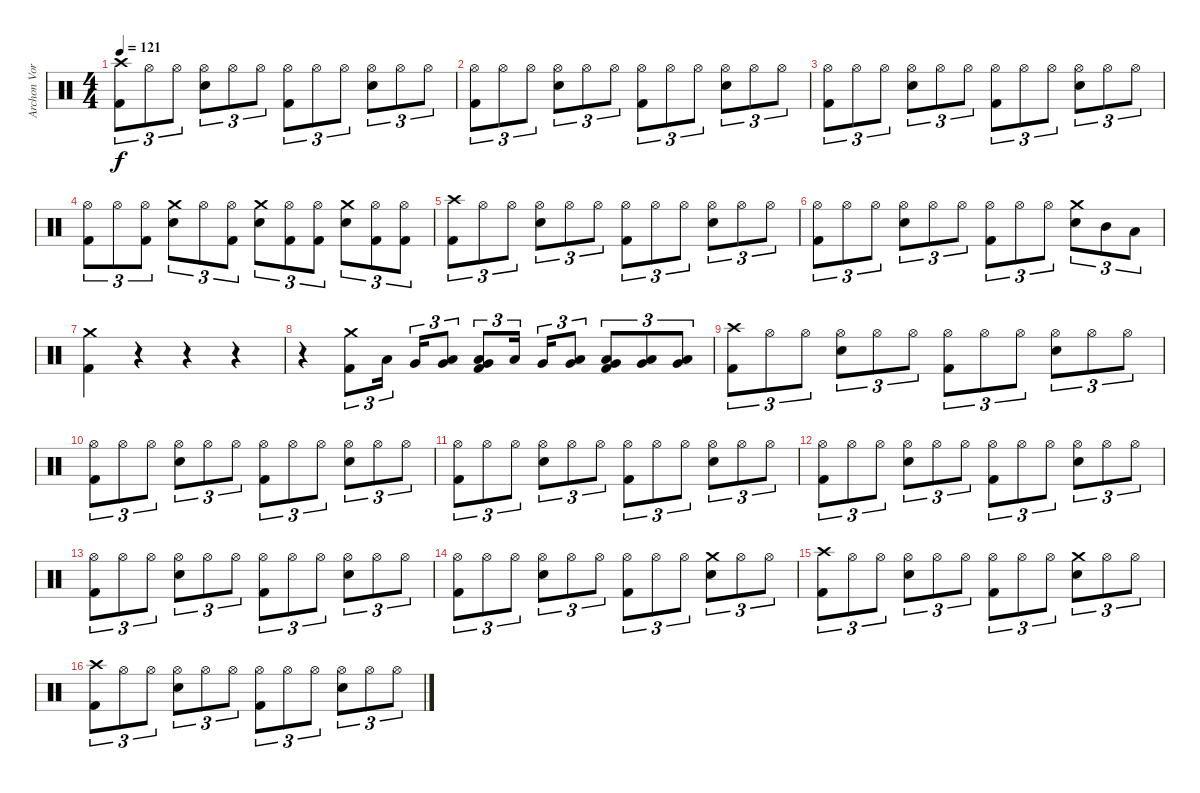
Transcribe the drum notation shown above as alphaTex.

\track ("Archon Vorskaath" "Archon Vor") {instrument percussion}
\staff {score}
\articulation defaults
\ts (4 4)
\tempo 121
\clef neutral
\ks c
("Crash high (hit)" "Kick (hit) 2").8{tu (3 2) dy f} "Hi-Hat (open)".8{tu (3 2)} "Hi-Hat (open)".8{tu (3 2)} ("Hi-Hat (open)" "Electric Snare (hit)").8{tu (3 2)} "Hi-Hat (open)".8{tu (3 2)} "Hi-Hat (open)".8{tu (3 2)} ("Hi-Hat (open)" "Kick (hit) 2").8{tu (3 2)} "Hi-Hat (open)".8{tu (3 2)} "Hi-Hat (open)".8{tu (3 2)} ("Hi-Hat (open)" "Electric Snare (hit)").8{tu (3 2)} "Hi-Hat (open)".8{tu (3 2)} "Hi-Hat (open)".8{tu (3 2)} |
("Hi-Hat (open)" "Kick (hit) 2").8{tu (3 2)} "Hi-Hat (open)".8{tu (3 2)} "Hi-Hat (open)".8{tu (3 2)} ("Hi-Hat (open)" "Electric Snare (hit)").8{tu (3 2)} "Hi-Hat (open)".8{tu (3 2)} "Hi-Hat (open)".8{tu (3 2)} ("Hi-Hat (open)" "Kick (hit) 2").8{tu (3 2)} "Hi-Hat (open)".8{tu (3 2)} "Hi-Hat (open)".8{tu (3 2)} ("Hi-Hat (open)" "Electric Snare (hit)").8{tu (3 2)} "Hi-Hat (open)".8{tu (3 2)} "Hi-Hat (open)".8{tu (3 2)} |
("Hi-Hat (open)" "Kick (hit) 2").8{tu (3 2)} "Hi-Hat (open)".8{tu (3 2)} "Hi-Hat (open)".8{tu (3 2)} ("Hi-Hat (open)" "Electric Snare (hit)").8{tu (3 2)} "Hi-Hat (open)".8{tu (3 2)} "Hi-Hat (open)".8{tu (3 2)} ("Hi-Hat (open)" "Kick (hit) 2").8{tu (3 2)} "Hi-Hat (open)".8{tu (3 2)} "Hi-Hat (open)".8{tu (3 2)} ("Hi-Hat (open)" "Electric Snare (hit)").8{tu (3 2)} "Hi-Hat (open)".8{tu (3 2)} "Hi-Hat (open)".8{tu (3 2)} |
("Hi-Hat (open)" "Kick (hit) 2").8{tu (3 2)} "Hi-Hat (open)".8{tu (3 2)} ("Hi-Hat (open)" "Kick (hit) 2").8{tu (3 2)} ("Crash medium (hit)" "Electric Snare (hit)").8{tu (3 2)} "Hi-Hat (open)".8{tu (3 2)} ("Hi-Hat (open)" "Kick (hit) 2").8{tu (3 2)} ("Crash medium (hit)" "Electric Snare (hit)").8{tu (3 2)} ("Hi-Hat (open)" "Kick (hit) 2").8{tu (3 2)} ("Hi-Hat (open)" "Kick (hit) 2").8{tu (3 2)} ("Crash medium (hit)" "Electric Snare (hit)").8{tu (3 2)} ("Hi-Hat (open)" "Kick (hit) 2").8{tu (3 2)} ("Hi-Hat (open)" "Kick (hit) 2").8{tu (3 2)} |
("Crash high (hit)" "Kick (hit) 2").8{tu (3 2)} "Hi-Hat (open)".8{tu (3 2)} "Hi-Hat (open)".8{tu (3 2)} ("Hi-Hat (open)" "Electric Snare (hit)").8{tu (3 2)} "Hi-Hat (open)".8{tu (3 2)} "Hi-Hat (open)".8{tu (3 2)} ("Hi-Hat (open)" "Kick (hit) 2").8{tu (3 2)} "Hi-Hat (open)".8{tu (3 2)} "Hi-Hat (open)".8{tu (3 2)} ("Hi-Hat (open)" "Electric Snare (hit)").8{tu (3 2)} "Hi-Hat (open)".8{tu (3 2)} "Hi-Hat (open)".8{tu (3 2)} |
("Hi-Hat (open)" "Kick (hit) 2").8{tu (3 2)} "Hi-Hat (open)".8{tu (3 2)} "Hi-Hat (open)".8{tu (3 2)} ("Hi-Hat (open)" "Electric Snare (hit)").8{tu (3 2)} "Hi-Hat (open)".8{tu (3 2)} "Hi-Hat (open)".8{tu (3 2)} ("Hi-Hat (open)" "Kick (hit) 2").8{tu (3 2)} "Hi-Hat (open)".8{tu (3 2)} "Hi-Hat (open)".8{tu (3 2)} ("Crash medium (hit)" "Electric Snare (hit)").8{tu (3 2)} "Mid Tom (hit)".8{tu (3 2)} "Low Tom (hit)".8{tu (3 2)} |
("Crash medium (hit)" "Kick (hit) 2").4 r.4 r.4 r.4 |
r.4 ("Crash medium (hit)" "Kick (hit) 2").8{tu (3 2)} "Low Tom (hit)".16{tu (3 2) beam splitsecondary} "Very Low Tom (hit)".16{tu (3 2)} ("Very Low Tom (hit)" "Low Tom (hit)").8{tu (3 2)} ("Very Low Tom (hit)" "Low Tom (hit)" "Kick (hit) 2").8{tu (3 2)} "Low Tom (hit)".16{tu (3 2) beam splitsecondary} "Very Low Tom (hit)".16{tu (3 2)} ("Very Low Tom (hit)" "Low Tom (hit)").8{tu (3 2)} ("Low Floor Tom (hit)" "Very Low Tom (hit)" "Kick (hit) 2").8{tu (3 2)} ("Low Floor Tom (hit)" "Very Low Tom (hit)").8{tu (3 2)} ("Low Floor Tom (hit)" "Very Low Tom (hit)").8{tu (3 2)} |
("Crash high (hit)" "Kick (hit) 2").8{tu (3 2)} "Hi-Hat (open)".8{tu (3 2)} "Hi-Hat (open)".8{tu (3 2)} ("Hi-Hat (open)" "Electric Snare (hit)").8{tu (3 2)} "Hi-Hat (open)".8{tu (3 2)} "Hi-Hat (open)".8{tu (3 2)} ("Hi-Hat (open)" "Kick (hit) 2").8{tu (3 2)} "Hi-Hat (open)".8{tu (3 2)} "Hi-Hat (open)".8{tu (3 2)} ("Hi-Hat (open)" "Electric Snare (hit)").8{tu (3 2)} "Hi-Hat (open)".8{tu (3 2)} "Hi-Hat (open)".8{tu (3 2)} |
("Hi-Hat (open)" "Kick (hit) 2").8{tu (3 2)} "Hi-Hat (open)".8{tu (3 2)} "Hi-Hat (open)".8{tu (3 2)} ("Hi-Hat (open)" "Electric Snare (hit)").8{tu (3 2)} "Hi-Hat (open)".8{tu (3 2)} "Hi-Hat (open)".8{tu (3 2)} ("Hi-Hat (open)" "Kick (hit) 2").8{tu (3 2)} "Hi-Hat (open)".8{tu (3 2)} "Hi-Hat (open)".8{tu (3 2)} ("Hi-Hat (open)" "Electric Snare (hit)").8{tu (3 2)} "Hi-Hat (open)".8{tu (3 2)} "Hi-Hat (open)".8{tu (3 2)} |
("Hi-Hat (open)" "Kick (hit) 2").8{tu (3 2)} "Hi-Hat (open)".8{tu (3 2)} "Hi-Hat (open)".8{tu (3 2)} ("Hi-Hat (open)" "Electric Snare (hit)").8{tu (3 2)} "Hi-Hat (open)".8{tu (3 2)} "Hi-Hat (open)".8{tu (3 2)} ("Hi-Hat (open)" "Kick (hit) 2").8{tu (3 2)} "Hi-Hat (open)".8{tu (3 2)} "Hi-Hat (open)".8{tu (3 2)} ("Hi-Hat (open)" "Electric Snare (hit)").8{tu (3 2)} "Hi-Hat (open)".8{tu (3 2)} "Hi-Hat (open)".8{tu (3 2)} |
("Hi-Hat (open)" "Kick (hit) 2").8{tu (3 2)} "Hi-Hat (open)".8{tu (3 2)} "Hi-Hat (open)".8{tu (3 2)} ("Hi-Hat (open)" "Electric Snare (hit)").8{tu (3 2)} "Hi-Hat (open)".8{tu (3 2)} "Hi-Hat (open)".8{tu (3 2)} ("Hi-Hat (open)" "Kick (hit) 2").8{tu (3 2)} "Hi-Hat (open)".8{tu (3 2)} "Hi-Hat (open)".8{tu (3 2)} ("Hi-Hat (open)" "Electric Snare (hit)").8{tu (3 2)} "Hi-Hat (open)".8{tu (3 2)} "Hi-Hat (open)".8{tu (3 2)} |
("Hi-Hat (open)" "Kick (hit) 2").8{tu (3 2)} "Hi-Hat (open)".8{tu (3 2)} "Hi-Hat (open)".8{tu (3 2)} ("Hi-Hat (open)" "Electric Snare (hit)").8{tu (3 2)} "Hi-Hat (open)".8{tu (3 2)} "Hi-Hat (open)".8{tu (3 2)} ("Hi-Hat (open)" "Kick (hit) 2").8{tu (3 2)} "Hi-Hat (open)".8{tu (3 2)} "Hi-Hat (open)".8{tu (3 2)} ("Hi-Hat (open)" "Electric Snare (hit)").8{tu (3 2)} "Hi-Hat (open)".8{tu (3 2)} "Hi-Hat (open)".8{tu (3 2)} |
("Hi-Hat (open)" "Kick (hit) 2").8{tu (3 2)} "Hi-Hat (open)".8{tu (3 2)} "Hi-Hat (open)".8{tu (3 2)} ("Hi-Hat (open)" "Electric Snare (hit)").8{tu (3 2)} "Hi-Hat (open)".8{tu (3 2)} "Hi-Hat (open)".8{tu (3 2)} ("Hi-Hat (open)" "Kick (hit) 2").8{tu (3 2)} "Hi-Hat (open)".8{tu (3 2)} "Hi-Hat (open)".8{tu (3 2)} ("Crash medium (hit)" "Electric Snare (hit)").8{tu (3 2)} "Hi-Hat (open)".8{tu (3 2)} "Hi-Hat (open)".8{tu (3 2)} |
("Crash high (hit)" "Kick (hit) 2").8{tu (3 2)} "Hi-Hat (open)".8{tu (3 2)} "Hi-Hat (open)".8{tu (3 2)} ("Hi-Hat (open)" "Electric Snare (hit)").8{tu (3 2)} "Hi-Hat (open)".8{tu (3 2)} "Hi-Hat (open)".8{tu (3 2)} ("Hi-Hat (open)" "Kick (hit) 2").8{tu (3 2)} "Hi-Hat (open)".8{tu (3 2)} "Hi-Hat (open)".8{tu (3 2)} ("Crash medium (hit)" "Electric Snare (hit)").8{tu (3 2)} "Hi-Hat (open)".8{tu (3 2)} "Hi-Hat (open)".8{tu (3 2)} |
("Crash high (hit)" "Kick (hit) 2").8{tu (3 2)} "Hi-Hat (open)".8{tu (3 2)} "Hi-Hat (open)".8{tu (3 2)} ("Hi-Hat (open)" "Electric Snare (hit)").8{tu (3 2)} "Hi-Hat (open)".8{tu (3 2)} "Hi-Hat (open)".8{tu (3 2)} ("Hi-Hat (open)" "Kick (hit) 2").8{tu (3 2)} "Hi-Hat (open)".8{tu (3 2)} "Hi-Hat (open)".8{tu (3 2)} ("Hi-Hat (open)" "Electric Snare (hit)").8{tu (3 2)} "Hi-Hat (open)".8{tu (3 2)} "Hi-Hat (open)".8{tu (3 2)}
